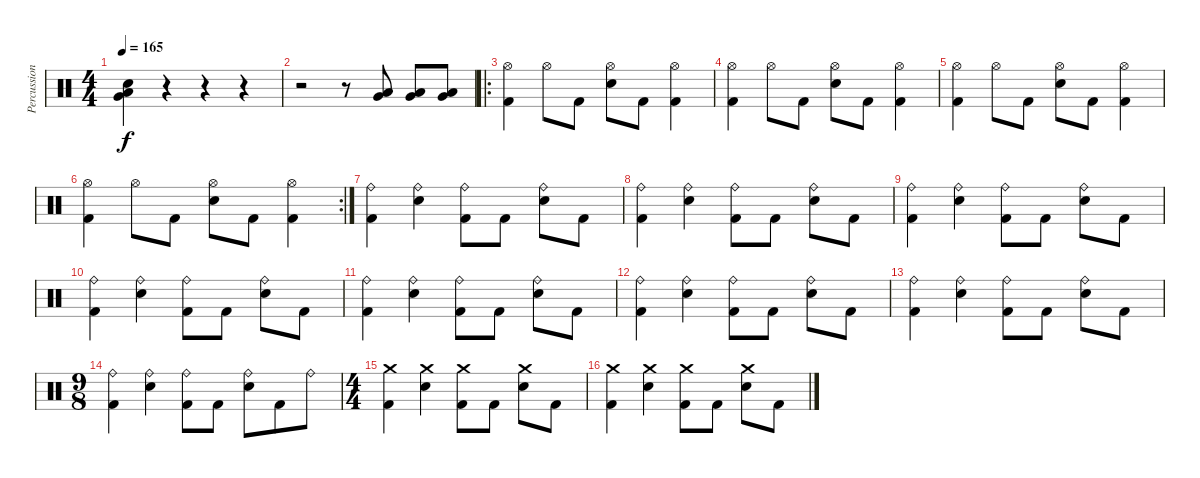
\track ("Percussions" "Percussion") {instrument percussion}
\staff {score}
\articulation defaults
\ts (4 4)
\tempo 165
\clef neutral
\ks c
("Snare (hit) 2" "Very Low Tom (hit)" "Low Floor Tom (hit)").4{dy f} r.4 r.4 r.4 |
r.2 r.8 ("Low Floor Tom (hit)" "Very Low Tom (hit)").8 ("Low Floor Tom (hit)" "Very Low Tom (hit)").8 ("Low Floor Tom (hit)" "Very Low Tom (hit)").8 |
\ro
("Kick (hit) 2" "Hi-Hat (open)").4 "Hi-Hat (open)".8 "Kick (hit) 2".8 ("Snare (hit) 2" "Hi-Hat (open)").8 "Kick (hit) 2".8 ("Kick (hit) 2" "Hi-Hat (open)").4 |
("Kick (hit) 2" "Hi-Hat (open)").4 "Hi-Hat (open)".8 "Kick (hit) 2".8 ("Snare (hit) 2" "Hi-Hat (open)").8 "Kick (hit) 2".8 ("Kick (hit) 2" "Hi-Hat (open)").4 |
("Kick (hit) 2" "Hi-Hat (open)").4 "Hi-Hat (open)".8 "Kick (hit) 2".8 ("Snare (hit) 2" "Hi-Hat (open)").8 "Kick (hit) 2".8 ("Kick (hit) 2" "Hi-Hat (open)").4 |
\rc 2
("Kick (hit) 2" "Hi-Hat (open)").4 "Hi-Hat (open)".8 "Kick (hit) 2".8 ("Snare (hit) 2" "Hi-Hat (open)").8 "Kick (hit) 2".8 ("Kick (hit) 2" "Hi-Hat (open)").4 |
("Kick (hit) 2" "Ride (bell)").4 ("Snare (hit) 2" "Ride (bell)").4 ("Kick (hit) 2" "Ride (bell)").8 "Kick (hit) 2".8 ("Snare (hit) 2" "Ride (bell)").8 "Kick (hit) 2".8 |
("Kick (hit) 2" "Ride (bell)").4 ("Snare (hit) 2" "Ride (bell)").4 ("Kick (hit) 2" "Ride (bell)").8 "Kick (hit) 2".8 ("Snare (hit) 2" "Ride (bell)").8 "Kick (hit) 2".8 |
("Kick (hit) 2" "Ride (bell)").4 ("Snare (hit) 2" "Ride (bell)").4 ("Kick (hit) 2" "Ride (bell)").8 "Kick (hit) 2".8 ("Snare (hit) 2" "Ride (bell)").8 "Kick (hit) 2".8 |
("Kick (hit) 2" "Ride (bell)").4 ("Snare (hit) 2" "Ride (bell)").4 ("Kick (hit) 2" "Ride (bell)").8 "Kick (hit) 2".8 ("Snare (hit) 2" "Ride (bell)").8 "Kick (hit) 2".8 |
("Kick (hit) 2" "Ride (bell)").4 ("Snare (hit) 2" "Ride (bell)").4 ("Kick (hit) 2" "Ride (bell)").8 "Kick (hit) 2".8 ("Snare (hit) 2" "Ride (bell)").8 "Kick (hit) 2".8 |
("Kick (hit) 2" "Ride (bell)").4 ("Snare (hit) 2" "Ride (bell)").4 ("Kick (hit) 2" "Ride (bell)").8 "Kick (hit) 2".8 ("Snare (hit) 2" "Ride (bell)").8 "Kick (hit) 2".8 |
("Kick (hit) 2" "Ride (bell)").4 ("Snare (hit) 2" "Ride (bell)").4 ("Kick (hit) 2" "Ride (bell)").8 "Kick (hit) 2".8 ("Snare (hit) 2" "Ride (bell)").8 "Kick (hit) 2".8 |
\ts (9 8)
("Kick (hit) 2" "Ride (bell)").4 ("Snare (hit) 2" "Ride (bell)").4 ("Kick (hit) 2" "Ride (bell)").8 "Kick (hit) 2".8 ("Snare (hit) 2" "Ride (bell)").8 "Kick (hit) 2".8 "Ride (bell)".8 |
\ts (4 4)
("Kick (hit) 2" "Crash medium (hit)").4 ("Snare (hit) 2" "Crash medium (hit)").4 ("Kick (hit) 2" "Crash medium (hit)").8 "Kick (hit) 2".8 ("Snare (hit) 2" "Crash medium (hit)").8 "Kick (hit) 2".8 |
("Kick (hit) 2" "Crash medium (hit)").4 ("Snare (hit) 2" "Crash medium (hit)").4 ("Kick (hit) 2" "Crash medium (hit)").8 "Kick (hit) 2".8 ("Snare (hit) 2" "Crash medium (hit)").8 "Kick (hit) 2".8
